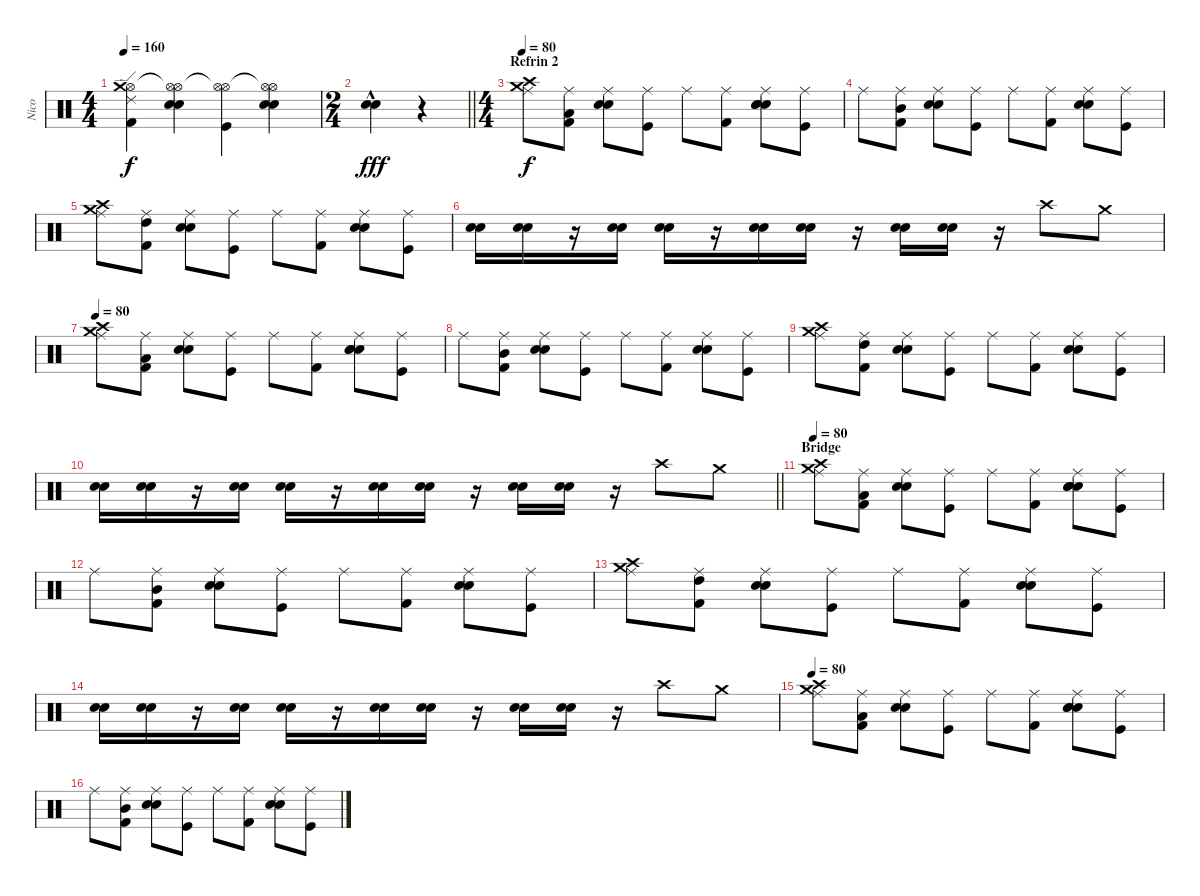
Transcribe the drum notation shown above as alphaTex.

\track ("Nico" "Nico") {instrument percussion}
\staff {score}
\articulation defaults
\ts (4 4)
\tempo 160
\clef neutral
\ks c
("Hi-Hat (open)" "Crash medium (hit)" "Ride (edge) 2" "Kick (hit) 2").4{dy f} ("Hi-Hat (open)"{t} "Hi-Hat (open)" "Electric Snare (hit)" "Snare (hit) 2").4 ("Hi-Hat (open)" "Hi-Hat (open)"{t} "Kick (hit)").4 ("Hi-Hat (open)"{t} "Hi-Hat (open)" "Electric Snare (hit)" "Snare (hit) 2").4 |
\ts (2 4)
\barLineRight lightlight
("Electric Snare (hit)"{hac} "Electric Snare (hit)"{hac}).4{bd 480 dy fff volume 16} r.4 |
\ts (4 4)
\section ("" "Refrin 2")
\tempo 80
("Ride (middle)" "Crash medium (hit)" "Crash high (hit)").8{dy f volume 13} ("Ride (middle)" "Low Tom (hit)" "Kick (hit) 2").8 ("Ride (middle)" "Snare (hit) 2" "Electric Snare (hit)").8 ("Ride (middle)" "Kick (hit)").8 "Ride (middle)".8 ("Ride (middle)" "Kick (hit) 2").8 ("Ride (middle)" "Snare (hit) 2" "Electric Snare (hit)" "Snare (hit) 2").8 ("Ride (middle)" "Kick (hit)").8 |
"Ride (middle)".8{volume 13} ("Ride (middle)" "Mid Tom (hit)" "Kick (hit) 2").8 ("Ride (middle)" "Snare (hit) 2" "Electric Snare (hit)").8 ("Ride (middle)" "Kick (hit)").8 "Ride (middle)".8 ("Ride (middle)" "Kick (hit) 2").8 ("Ride (middle)" "Electric Snare (hit)" "Snare (hit) 2").8 ("Ride (middle)" "Kick (hit)").8 |
("Ride (middle)" "Crash medium (hit)" "Crash high (hit)").8{volume 13} ("Ride (middle)" "High Tom (hit)" "Kick (hit) 2").8 ("Ride (middle)" "Electric Snare (hit)" "Snare (hit) 2").8 ("Ride (middle)" "Kick (hit)").8 "Ride (middle)".8 ("Ride (middle)" "Kick (hit) 2").8 ("Ride (middle)" "Snare (hit) 2" "Electric Snare (hit)").8 ("Ride (middle)" "Kick (hit)").8 |
("Snare (hit) 2" "Electric Snare (hit)").16 ("Snare (hit) 2" "Electric Snare (hit)").16 r.16 ("Snare (hit) 2" "Electric Snare (hit)").16 ("Snare (hit) 2" "Electric Snare (hit)").16 r.16 ("Snare (hit) 2" "Electric Snare (hit)").16 ("Snare (hit) 2" "Electric Snare (hit)").16 r.16 ("Snare (hit) 2" "Electric Snare (hit)").16 ("Snare (hit) 2" "Electric Snare (hit)").16 r.16 "Crash high (hit)".8 "Crash medium (hit)".8 |
\tempo 80
("Ride (middle)" "Crash high (hit)" "Crash medium (hit)").8{volume 13} ("Ride (middle)" "Low Tom (hit)" "Kick (hit) 2").8 ("Ride (middle)" "Snare (hit) 2" "Electric Snare (hit)").8 ("Ride (middle)" "Kick (hit)").8 "Ride (middle)".8 ("Ride (middle)" "Kick (hit) 2").8 ("Ride (middle)" "Snare (hit) 2" "Electric Snare (hit)" "Snare (hit) 2").8 ("Ride (middle)" "Kick (hit)").8 |
"Ride (middle)".8{volume 13} ("Ride (middle)" "Mid Tom (hit)" "Kick (hit) 2").8 ("Ride (middle)" "Snare (hit) 2" "Electric Snare (hit)").8 ("Ride (middle)" "Kick (hit)").8 "Ride (middle)".8 ("Ride (middle)" "Kick (hit) 2").8 ("Ride (middle)" "Electric Snare (hit)" "Snare (hit) 2").8 ("Ride (middle)" "Kick (hit)").8 |
("Ride (middle)" "Crash high (hit)" "Crash medium (hit)").8{volume 13} ("Ride (middle)" "High Tom (hit)" "Kick (hit) 2").8 ("Ride (middle)" "Electric Snare (hit)" "Snare (hit) 2").8 ("Ride (middle)" "Kick (hit)").8 "Ride (middle)".8 ("Ride (middle)" "Kick (hit) 2").8 ("Ride (middle)" "Snare (hit) 2" "Electric Snare (hit)").8 ("Ride (middle)" "Kick (hit)").8 |
\barLineRight lightlight
("Snare (hit) 2" "Electric Snare (hit)").16 ("Snare (hit) 2" "Electric Snare (hit)").16 r.16 ("Snare (hit) 2" "Electric Snare (hit)").16 ("Snare (hit) 2" "Electric Snare (hit)").16 r.16 ("Snare (hit) 2" "Electric Snare (hit)").16 ("Snare (hit) 2" "Electric Snare (hit)").16 r.16 ("Snare (hit) 2" "Electric Snare (hit)").16 ("Snare (hit) 2" "Electric Snare (hit)").16 r.16 "Crash high (hit)".8 "Crash medium (hit)".8 |
\section ("" "Bridge")
\tempo 80
("Ride (middle)" "Crash medium (hit)" "Crash high (hit)").8{volume 13} ("Ride (middle)" "Low Tom (hit)" "Kick (hit) 2").8 ("Ride (middle)" "Snare (hit) 2" "Electric Snare (hit)").8 ("Ride (middle)" "Kick (hit)").8 "Ride (middle)".8 ("Ride (middle)" "Kick (hit) 2").8 ("Ride (middle)" "Snare (hit) 2" "Electric Snare (hit)" "Snare (hit) 2").8 ("Ride (middle)" "Kick (hit)").8 |
"Ride (middle)".8{volume 13} ("Ride (middle)" "Mid Tom (hit)" "Kick (hit) 2").8 ("Ride (middle)" "Snare (hit) 2" "Electric Snare (hit)").8 ("Ride (middle)" "Kick (hit)").8 "Ride (middle)".8 ("Ride (middle)" "Kick (hit) 2").8 ("Ride (middle)" "Electric Snare (hit)" "Snare (hit) 2").8 ("Ride (middle)" "Kick (hit)").8 |
("Ride (middle)" "Crash medium (hit)" "Crash high (hit)").8{volume 13} ("Ride (middle)" "High Tom (hit)" "Kick (hit) 2").8 ("Ride (middle)" "Electric Snare (hit)" "Snare (hit) 2").8 ("Ride (middle)" "Kick (hit)").8 "Ride (middle)".8 ("Ride (middle)" "Kick (hit) 2").8 ("Ride (middle)" "Snare (hit) 2" "Electric Snare (hit)").8 ("Ride (middle)" "Kick (hit)").8 |
("Snare (hit) 2" "Electric Snare (hit)").16 ("Snare (hit) 2" "Electric Snare (hit)").16 r.16 ("Snare (hit) 2" "Electric Snare (hit)").16 ("Snare (hit) 2" "Electric Snare (hit)").16 r.16 ("Snare (hit) 2" "Electric Snare (hit)").16 ("Snare (hit) 2" "Electric Snare (hit)").16 r.16 ("Snare (hit) 2" "Electric Snare (hit)").16 ("Snare (hit) 2" "Electric Snare (hit)").16 r.16 "Crash high (hit)".8 "Crash medium (hit)".8 |
\tempo 80
("Ride (middle)" "Crash high (hit)" "Crash medium (hit)").8{volume 13} ("Ride (middle)" "Low Tom (hit)" "Kick (hit) 2").8 ("Ride (middle)" "Snare (hit) 2" "Electric Snare (hit)").8 ("Ride (middle)" "Kick (hit)").8 "Ride (middle)".8 ("Ride (middle)" "Kick (hit) 2").8 ("Ride (middle)" "Snare (hit) 2" "Electric Snare (hit)" "Snare (hit) 2").8 ("Ride (middle)" "Kick (hit)").8 |
"Ride (middle)".8{volume 13} ("Ride (middle)" "Mid Tom (hit)" "Kick (hit) 2").8 ("Ride (middle)" "Snare (hit) 2" "Electric Snare (hit)").8 ("Ride (middle)" "Kick (hit)").8 "Ride (middle)".8 ("Ride (middle)" "Kick (hit) 2").8 ("Ride (middle)" "Electric Snare (hit)" "Snare (hit) 2").8 ("Ride (middle)" "Kick (hit)").8
